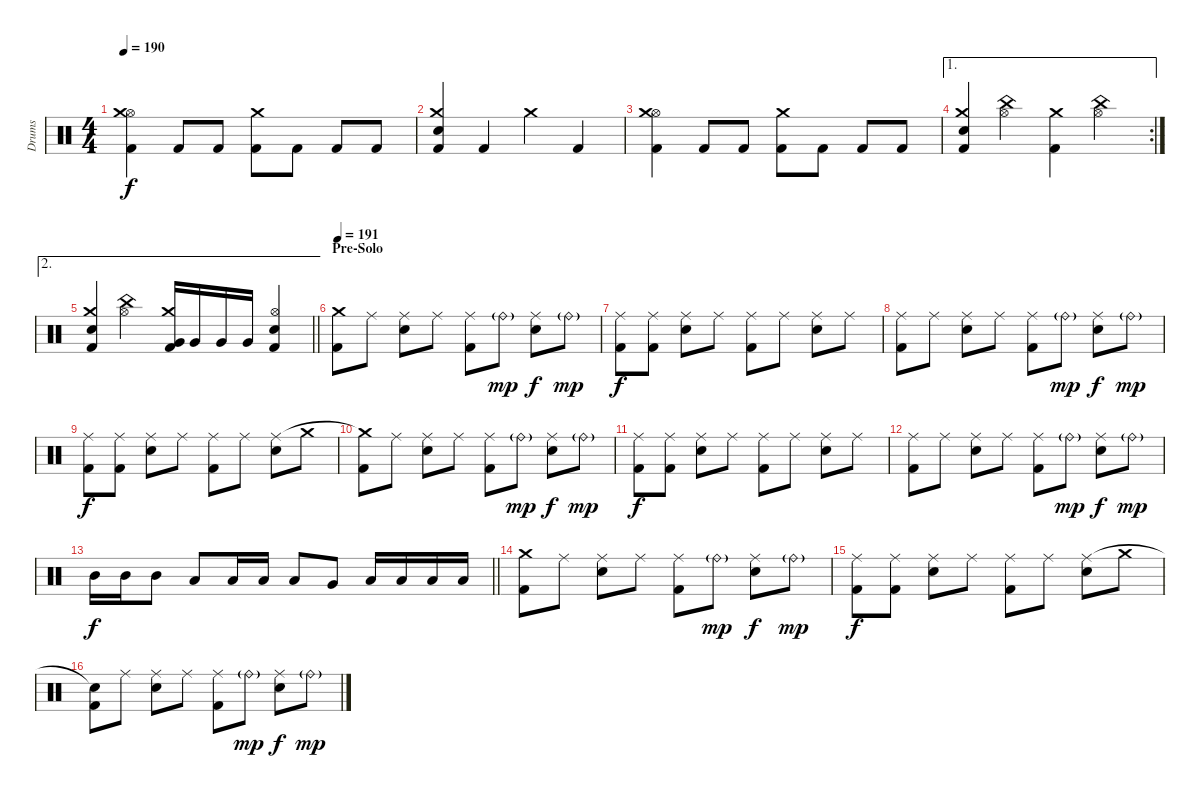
\track ("Drums" "Drums") {instrument percussion}
\staff {score}
\articulation defaults
\ts (4 4)
\tempo 190
\clef neutral
\ks c
("Kick (hit) 2" "Hi-Hat (open)" "Crash medium (hit)").4{dy f} "Kick (hit) 2".8 "Kick (hit) 2".8 ("Kick (hit) 2" "Crash medium (hit)").8 "Kick (hit) 2".8 "Kick (hit) 2".8 "Kick (hit) 2".8 |
("Kick (hit) 2" "Snare (hit) 2" "Crash medium (hit)").4 "Kick (hit) 2".4 "Crash medium (hit)".4 "Kick (hit) 2".4 |
("Kick (hit) 2" "Hi-Hat (open)" "Crash medium (hit)").4 "Kick (hit) 2".8 "Kick (hit) 2".8 ("Kick (hit) 2" "Crash medium (hit)").8 "Kick (hit) 2".8 "Kick (hit) 2".8 "Kick (hit) 2".8 |
\ae 1
\rc 2
("Kick (hit) 2" "Snare (hit) 2" "Crash medium (hit)").4 ("China (hit)" "Hi-Hat (open)").4 ("Kick (hit) 2" "Crash medium (hit)").4 ("China (hit)" "Hi-Hat (open)").4 |
\ae 2
\barLineRight lightlight
("Kick (hit) 2" "Snare (hit) 2" "Crash medium (hit)").4 ("China (hit)" "Hi-Hat (open)").4 ("Kick (hit) 2" "Very Low Tom (hit)" "Crash medium (hit)").16 "Very Low Tom (hit)".16 "Very Low Tom (hit)".16 "Very Low Tom (hit)".16 ("Kick (hit) 2" "Snare (hit) 2" "Hi-Hat (open)").4 |
\section ("" "Pre-Solo")
\tempo 191
("Kick (hit) 2" "Crash medium (hit)").8 "Ride (middle)".8 ("Snare (hit) 2" "Ride (middle)").8 "Ride (middle)".8 ("Kick (hit) 2" "Ride (middle)").8 "Ride (bell)"{g}.8{dy mp} ("Snare (hit) 2" "Ride (middle)").8{dy f} "Ride (bell)"{g}.8{dy mp} |
("Kick (hit) 2" "Ride (middle)").8{dy f} ("Kick (hit) 2" "Ride (middle)").8 ("Snare (hit) 2" "Ride (middle)").8 "Ride (middle)".8 ("Kick (hit) 2" "Ride (middle)").8 "Ride (middle)".8 ("Snare (hit) 2" "Ride (middle)").8 "Ride (middle)".8 |
("Kick (hit) 2" "Ride (middle)").8 "Ride (middle)".8 ("Snare (hit) 2" "Ride (middle)").8 "Ride (middle)".8 ("Kick (hit) 2" "Ride (middle)").8 "Ride (bell)"{g}.8{dy mp} ("Snare (hit) 2" "Ride (middle)").8{dy f} "Ride (bell)"{g}.8{dy mp} |
("Kick (hit) 2" "Ride (middle)").8{dy f} ("Kick (hit) 2" "Ride (middle)").8 ("Snare (hit) 2" "Ride (middle)").8 "Ride (middle)".8 ("Kick (hit) 2" "Ride (middle)").8 "Ride (middle)".8 ("Snare (hit) 2" "Ride (middle)").8 "Crash medium (hit)".8 |
("Kick (hit) 2" "Crash medium (hit)"{t}).8 "Ride (middle)".8 ("Snare (hit) 2" "Ride (middle)").8 "Ride (middle)".8 ("Kick (hit) 2" "Ride (middle)").8 "Ride (bell)"{g}.8{dy mp} ("Snare (hit) 2" "Ride (middle)").8{dy f} "Ride (bell)"{g}.8{dy mp} |
("Kick (hit) 2" "Ride (middle)").8{dy f} ("Kick (hit) 2" "Ride (middle)").8 ("Snare (hit) 2" "Ride (middle)").8 "Ride (middle)".8 ("Kick (hit) 2" "Ride (middle)").8 "Ride (middle)".8 ("Snare (hit) 2" "Ride (middle)").8 "Ride (middle)".8 |
("Kick (hit) 2" "Ride (middle)").8 "Ride (middle)".8 ("Snare (hit) 2" "Ride (middle)").8 "Ride (middle)".8 ("Kick (hit) 2" "Ride (middle)").8 "Ride (bell)"{g}.8{dy mp} ("Snare (hit) 2" "Ride (middle)").8{dy f} "Ride (bell)"{g}.8{dy mp} |
\barLineRight lightlight "Mid Tom (hit)".16{dy f} "Mid Tom (hit)".16 "Mid Tom (hit)".8 "Low Tom (hit)".8 "Low Tom (hit)".16 "Low Tom (hit)".16 "Low Tom (hit)".8 "Very Low Tom (hit)".8 "Low Floor Tom (hit)".16 "Low Floor Tom (hit)".16 "Low Floor Tom (hit)".16 "Low Floor Tom (hit)".16
|
\section ("" "")
("Kick (hit) 2" "Crash medium (hit)").8 "Ride (middle)".8 ("Snare (hit) 2" "Ride (middle)").8 "Ride (middle)".8 ("Kick (hit) 2" "Ride (middle)").8 "Ride (bell)"{g}.8{dy mp} ("Snare (hit) 2" "Ride (middle)").8{dy f} "Ride (bell)"{g}.8{dy mp} |
("Kick (hit) 2" "Ride (middle)").8{dy f} ("Kick (hit) 2" "Ride (middle)").8 ("Snare (hit) 2" "Ride (middle)").8 "Ride (middle)".8 ("Kick (hit) 2" "Ride (middle)").8 "Ride (middle)".8 ("Snare (hit) 2" "Ride (middle)").8 "Crash medium (hit)".8 |
("Kick (hit) 2" "Snare (hit)"{t}).8 "Ride (middle)".8 ("Snare (hit) 2" "Ride (middle)").8 "Ride (middle)".8 ("Kick (hit) 2" "Ride (middle)").8 "Ride (bell)"{g}.8{dy mp} ("Snare (hit) 2" "Ride (middle)").8{dy f} "Ride (bell)"{g}.8{dy mp}
